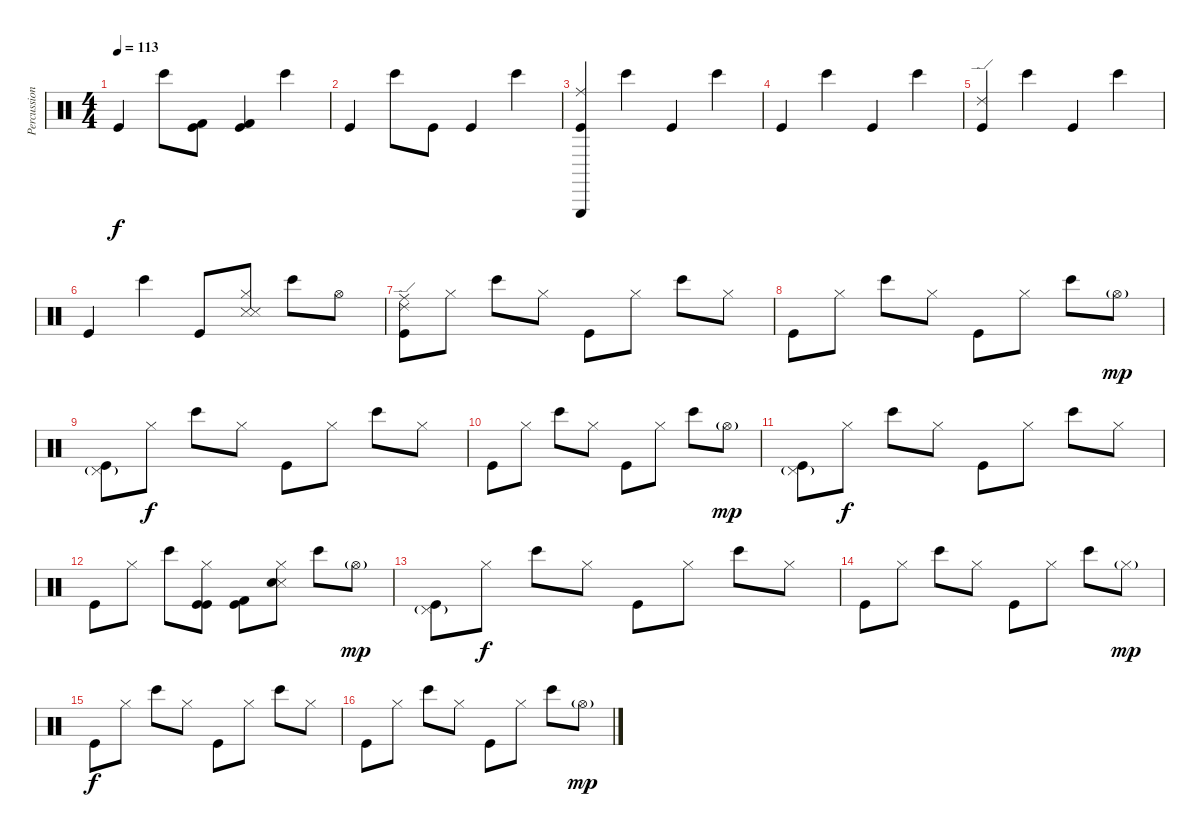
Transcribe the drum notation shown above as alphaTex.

\track ("Percussion" "Percussion") {instrument percussion}
\staff {score}
\articulation defaults
\ts (4 4)
\tempo 113
\clef neutral
\ks c "Kick (hit)".4{dy f} "Bongo High (hit)".8
("Kick (hit)" "Kick (hit) 2").8 ("Kick (hit)" "Kick (hit) 2").4 "Bongo High (hit)".4 |
"Kick (hit)".4 "Bongo High (hit)".8 "Kick (hit)".8 "Kick (hit)".4 "Bongo High (hit)".4 |
("Ride (middle)" "Triangle (hit)" "Kick (hit)").4 "Bongo High (hit)".4 "Kick (hit)".4 "Bongo High (hit)".4 |
"Kick (hit)".4 "Bongo High (hit)".4 "Kick (hit)".4 "Bongo High (hit)".4 |
("Ride (edge) 2" "Kick (hit)").4 "Bongo High (hit)".4 "Kick (hit)".4 "Bongo High (hit)".4 |
"Kick (hit)".4 "Bongo High (hit)".4 "Kick (hit)".8 ("Metronome (hit)" "Hi-Hat (closed)" "Snare (side stick) 3").8 "Bongo High (hit)".8 "Hi-Hat (open)".8 |
("Ride (edge) 2" "Ride (middle)" "Kick (hit)").8 "Hi-Hat (closed)".8 "Bongo High (hit)".8 "Hi-Hat (closed)".8 "Kick (hit)".8 "Hi-Hat (closed)".8 "Bongo High (hit)".8 "Hi-Hat (closed)".8 |
"Kick (hit)".8 "Hi-Hat (closed)".8 "Bongo High (hit)".8 "Hi-Hat (closed)".8 "Kick (hit)".8 "Hi-Hat (closed)".8 "Bongo High (hit)".8 "Hi-Hat (open)"{g}.8{dy mp} |
("Pedal Hi-Hat (hit)"{g} "Kick (hit)").8 "Hi-Hat (closed)".8{dy f} "Bongo High (hit)".8 "Hi-Hat (closed)".8 "Kick (hit)".8 "Hi-Hat (closed)".8 "Bongo High (hit)".8 "Hi-Hat (closed)".8 |
"Kick (hit)".8 "Hi-Hat (closed)".8 "Bongo High (hit)".8 "Hi-Hat (closed)".8 "Kick (hit)".8 "Hi-Hat (closed)".8 "Bongo High (hit)".8 "Hi-Hat (open)"{g}.8{dy mp} |
("Pedal Hi-Hat (hit)"{g} "Kick (hit)").8 "Hi-Hat (closed)".8{dy f} "Bongo High (hit)".8 "Hi-Hat (closed)".8 "Kick (hit)".8 "Hi-Hat (closed)".8 "Bongo High (hit)".8 "Hi-Hat (closed)".8 |
"Kick (hit)".8 "Hi-Hat (closed)".8 "Bongo High (hit)".8 ("Hi-Hat (closed)" "Kick (hit)" "Kick (hit)").8 ("Kick (hit)" "Kick (hit) 2").8 ("Hi-Hat (closed)" "Snare (side stick) 3" "Snare (hit)").8 "Bongo High (hit)".8 "Hi-Hat (open)"{g}.8{dy mp} |
("Pedal Hi-Hat (hit)"{g} "Kick (hit)").8 "Hi-Hat (closed)".8{dy f} "Bongo High (hit)".8 "Hi-Hat (closed)".8 "Kick (hit)".8 "Hi-Hat (closed)".8 "Bongo High (hit)".8 "Hi-Hat (closed)".8 |
"Kick (hit)".8 "Hi-Hat (closed)".8 "Bongo High (hit)".8 "Hi-Hat (closed)".8 "Kick (hit)".8 "Hi-Hat (closed)".8 "Bongo High (hit)".8 "Hi-Hat (closed)"{g}.8{dy mp} |
"Kick (hit)".8{dy f} "Hi-Hat (closed)".8 "Bongo High (hit)".8 "Hi-Hat (closed)".8 "Kick (hit)".8 "Hi-Hat (closed)".8 "Bongo High (hit)".8 "Hi-Hat (closed)".8 |
"Kick (hit)".8 "Hi-Hat (closed)".8 "Bongo High (hit)".8 "Hi-Hat (closed)".8 "Kick (hit)".8 "Hi-Hat (closed)".8 "Bongo High (hit)".8 "Hi-Hat (open)"{g}.8{dy mp}
